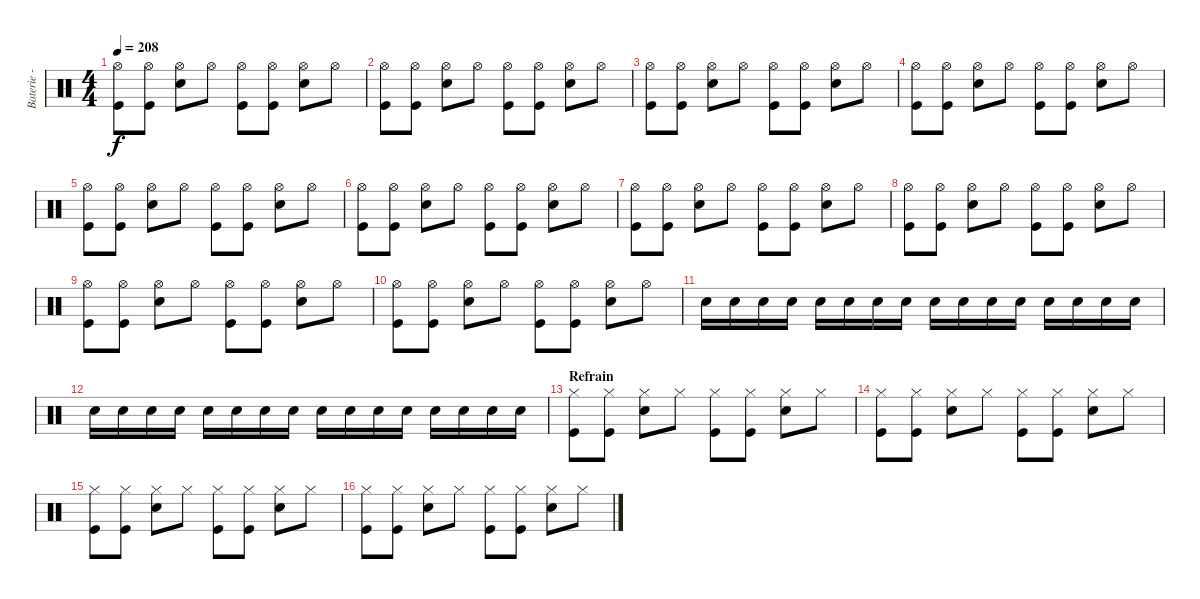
\track ("Baterie - Guillaume" "Baterie - ") {instrument percussion}
\staff {score}
\articulation defaults
\ts (4 4)
\tempo 208
\clef neutral
\ks c
("Hi-Hat (open)" "Kick (hit)").8{dy f} ("Hi-Hat (open)" "Kick (hit)").8 ("Hi-Hat (open)" "Electric Snare (hit)").8 "Hi-Hat (open)".8 ("Hi-Hat (open)" "Kick (hit)").8 ("Hi-Hat (open)" "Kick (hit)").8 ("Hi-Hat (open)" "Electric Snare (hit)").8 "Hi-Hat (open)".8 |
("Hi-Hat (open)" "Kick (hit)").8 ("Hi-Hat (open)" "Kick (hit)").8 ("Hi-Hat (open)" "Electric Snare (hit)").8 "Hi-Hat (open)".8 ("Hi-Hat (open)" "Kick (hit)").8 ("Hi-Hat (open)" "Kick (hit)").8 ("Hi-Hat (open)" "Electric Snare (hit)").8 "Hi-Hat (open)".8 |
("Hi-Hat (open)" "Kick (hit)").8 ("Hi-Hat (open)" "Kick (hit)").8 ("Hi-Hat (open)" "Electric Snare (hit)").8 "Hi-Hat (open)".8 ("Hi-Hat (open)" "Kick (hit)").8 ("Hi-Hat (open)" "Kick (hit)").8 ("Hi-Hat (open)" "Electric Snare (hit)").8 "Hi-Hat (open)".8 |
("Hi-Hat (open)" "Kick (hit)").8 ("Hi-Hat (open)" "Kick (hit)").8 ("Hi-Hat (open)" "Electric Snare (hit)").8 "Hi-Hat (open)".8 ("Hi-Hat (open)" "Kick (hit)").8 ("Hi-Hat (open)" "Kick (hit)").8 ("Hi-Hat (open)" "Electric Snare (hit)").8 "Hi-Hat (open)".8 |
("Hi-Hat (open)" "Kick (hit)").8 ("Hi-Hat (open)" "Kick (hit)").8 ("Hi-Hat (open)" "Electric Snare (hit)").8 "Hi-Hat (open)".8 ("Hi-Hat (open)" "Kick (hit)").8 ("Hi-Hat (open)" "Kick (hit)").8 ("Hi-Hat (open)" "Electric Snare (hit)").8 "Hi-Hat (open)".8 |
("Hi-Hat (open)" "Kick (hit)").8 ("Hi-Hat (open)" "Kick (hit)").8 ("Hi-Hat (open)" "Electric Snare (hit)").8 "Hi-Hat (open)".8 ("Hi-Hat (open)" "Kick (hit)").8 ("Hi-Hat (open)" "Kick (hit)").8 ("Hi-Hat (open)" "Electric Snare (hit)").8 "Hi-Hat (open)".8 |
("Hi-Hat (open)" "Kick (hit)").8 ("Hi-Hat (open)" "Kick (hit)").8 ("Hi-Hat (open)" "Electric Snare (hit)").8 "Hi-Hat (open)".8 ("Hi-Hat (open)" "Kick (hit)").8 ("Hi-Hat (open)" "Kick (hit)").8 ("Hi-Hat (open)" "Electric Snare (hit)").8 "Hi-Hat (open)".8 |
("Hi-Hat (open)" "Kick (hit)").8 ("Hi-Hat (open)" "Kick (hit)").8 ("Hi-Hat (open)" "Electric Snare (hit)").8 "Hi-Hat (open)".8 ("Hi-Hat (open)" "Kick (hit)").8 ("Hi-Hat (open)" "Kick (hit)").8 ("Hi-Hat (open)" "Electric Snare (hit)").8 "Hi-Hat (open)".8 |
("Hi-Hat (open)" "Kick (hit)").8 ("Hi-Hat (open)" "Kick (hit)").8 ("Hi-Hat (open)" "Electric Snare (hit)").8 "Hi-Hat (open)".8 ("Hi-Hat (open)" "Kick (hit)").8 ("Hi-Hat (open)" "Kick (hit)").8 ("Hi-Hat (open)" "Electric Snare (hit)").8 "Hi-Hat (open)".8 |
("Hi-Hat (open)" "Kick (hit)").8 ("Hi-Hat (open)" "Kick (hit)").8 ("Hi-Hat (open)" "Electric Snare (hit)").8 "Hi-Hat (open)".8 ("Hi-Hat (open)" "Kick (hit)").8 ("Hi-Hat (open)" "Kick (hit)").8 ("Hi-Hat (open)" "Electric Snare (hit)").8 "Hi-Hat (open)".8 |
"Electric Snare (hit)".16 "Electric Snare (hit)".16 "Electric Snare (hit)".16 "Electric Snare (hit)".16 "Electric Snare (hit)".16 "Electric Snare (hit)".16 "Electric Snare (hit)".16 "Electric Snare (hit)".16 "Electric Snare (hit)".16 "Electric Snare (hit)".16 "Electric Snare (hit)".16 "Electric Snare (hit)".16 "Electric Snare (hit)".16 "Electric Snare (hit)".16 "Electric Snare (hit)".16 "Electric Snare (hit)".16 |
"Electric Snare (hit)".16 "Electric Snare (hit)".16 "Electric Snare (hit)".16 "Electric Snare (hit)".16 "Electric Snare (hit)".16 "Electric Snare (hit)".16 "Electric Snare (hit)".16 "Electric Snare (hit)".16 "Electric Snare (hit)".16 "Electric Snare (hit)".16 "Electric Snare (hit)".16 "Electric Snare (hit)".16 "Electric Snare (hit)".16 "Electric Snare (hit)".16 "Electric Snare (hit)".16 "Electric Snare (hit)".16 |
\section ("" "Refrain")
("Hi-Hat (closed)" "Kick (hit)").8 ("Hi-Hat (closed)" "Kick (hit)").8 ("Hi-Hat (closed)" "Electric Snare (hit)").8 "Hi-Hat (closed)".8 ("Hi-Hat (closed)" "Kick (hit)").8 ("Hi-Hat (closed)" "Kick (hit)").8 ("Hi-Hat (closed)" "Electric Snare (hit)").8 "Hi-Hat (closed)".8 |
("Hi-Hat (closed)" "Kick (hit)").8 ("Hi-Hat (closed)" "Kick (hit)").8 ("Hi-Hat (closed)" "Electric Snare (hit)").8 "Hi-Hat (closed)".8 ("Hi-Hat (closed)" "Kick (hit)").8 ("Hi-Hat (closed)" "Kick (hit)").8 ("Hi-Hat (closed)" "Electric Snare (hit)").8 "Hi-Hat (closed)".8 |
("Hi-Hat (closed)" "Kick (hit)").8 ("Hi-Hat (closed)" "Kick (hit)").8 ("Hi-Hat (closed)" "Electric Snare (hit)").8 "Hi-Hat (closed)".8 ("Hi-Hat (closed)" "Kick (hit)").8 ("Hi-Hat (closed)" "Kick (hit)").8 ("Hi-Hat (closed)" "Electric Snare (hit)").8 "Hi-Hat (closed)".8 |
("Hi-Hat (closed)" "Kick (hit)").8 ("Hi-Hat (closed)" "Kick (hit)").8 ("Hi-Hat (closed)" "Electric Snare (hit)").8 "Hi-Hat (closed)".8 ("Hi-Hat (closed)" "Kick (hit)").8 ("Hi-Hat (closed)" "Kick (hit)").8 ("Hi-Hat (closed)" "Electric Snare (hit)").8 "Hi-Hat (closed)".8
